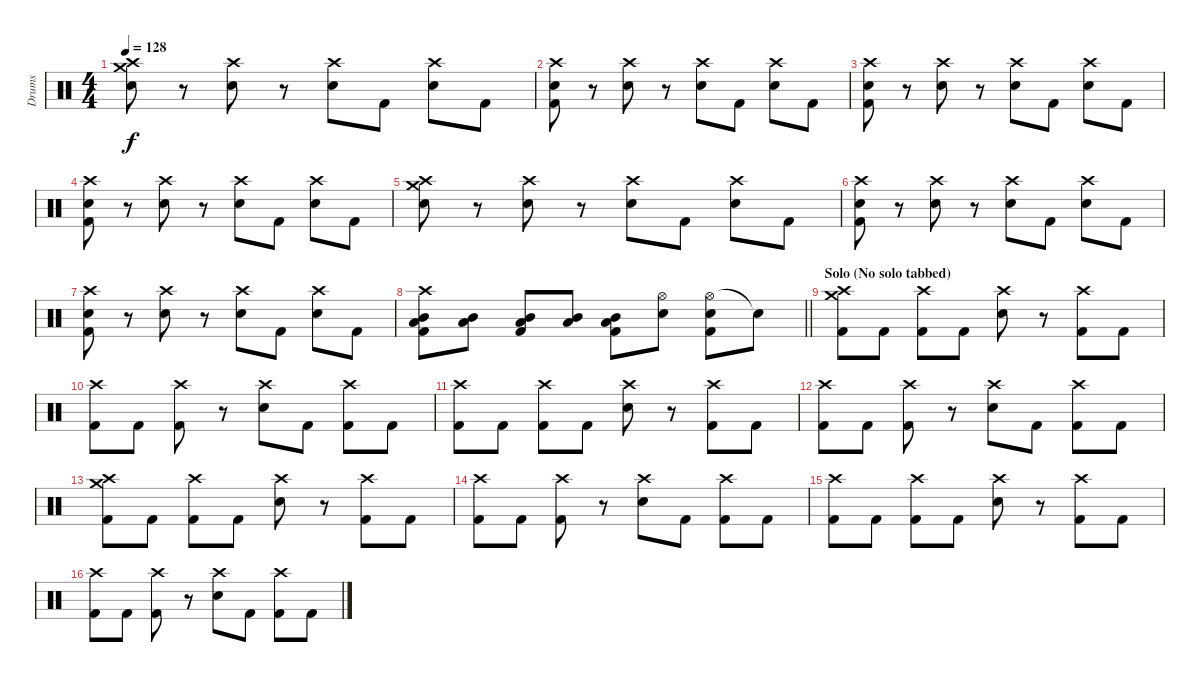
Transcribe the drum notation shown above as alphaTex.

\track ("Drums" "Drums") {instrument percussion}
\staff {score}
\articulation defaults
\ts (4 4)
\tempo 128
\clef neutral
\ks c
("Crash high (hit)" "Crash medium (hit)" "Snare (hit) 2").8{dy f volume 13} r.8 ("Crash high (hit)" "Snare (hit) 2").8 r.8 ("Crash high (hit)" "Snare (hit) 2").8 "Kick (hit) 2".8 ("Crash high (hit)" "Snare (hit) 2").8 "Kick (hit) 2".8 |
("Crash high (hit)" "Snare (hit) 2" "Kick (hit) 2").8 r.8 ("Crash high (hit)" "Snare (hit) 2").8 r.8 ("Crash high (hit)" "Snare (hit) 2").8 "Kick (hit) 2".8 ("Crash high (hit)" "Snare (hit) 2").8 "Kick (hit) 2".8 |
("Crash high (hit)" "Snare (hit) 2" "Kick (hit) 2").8 r.8 ("Crash high (hit)" "Snare (hit) 2").8 r.8 ("Crash high (hit)" "Snare (hit) 2").8 "Kick (hit) 2".8 ("Crash high (hit)" "Snare (hit) 2").8 "Kick (hit) 2".8 |
("Crash high (hit)" "Snare (hit) 2" "Kick (hit) 2").8 r.8 ("Crash high (hit)" "Snare (hit) 2").8 r.8 ("Crash high (hit)" "Snare (hit) 2").8 "Kick (hit) 2".8 ("Crash high (hit)" "Snare (hit) 2").8 "Kick (hit) 2".8 |
("Crash high (hit)" "Crash medium (hit)" "Snare (hit) 2").8 r.8 ("Crash high (hit)" "Snare (hit) 2").8 r.8 ("Crash high (hit)" "Snare (hit) 2").8 "Kick (hit) 2".8 ("Crash high (hit)" "Snare (hit) 2").8 "Kick (hit) 2".8 |
("Crash high (hit)" "Snare (hit) 2" "Kick (hit) 2").8 r.8 ("Crash high (hit)" "Snare (hit) 2").8 r.8 ("Crash high (hit)" "Snare (hit) 2").8 "Kick (hit) 2".8 ("Crash high (hit)" "Snare (hit) 2").8 "Kick (hit) 2".8 |
("Crash high (hit)" "Snare (hit) 2" "Kick (hit) 2").8 r.8 ("Crash high (hit)" "Snare (hit) 2").8 r.8 ("Crash high (hit)" "Snare (hit) 2").8 "Kick (hit) 2".8 ("Crash high (hit)" "Snare (hit) 2").8 "Kick (hit) 2".8 |
\barLineRight lightlight
("Crash high (hit)" "Mid Tom (hit)" "Low Tom (hit)" "Kick (hit) 2").8 ("Mid Tom (hit)" "Low Tom (hit)").8 ("Mid Tom (hit)" "Low Tom (hit)" "Kick (hit) 2").8 ("Mid Tom (hit)" "Low Tom (hit)").8 ("Mid Tom (hit)" "Low Tom (hit)" "Kick (hit) 2").8 ("Hi-Hat (open)" "Snare (hit) 2").8 ("Hi-Hat (open)" "Snare (hit) 2" "Kick (hit) 2").8 "Snare (hit)"{t}.8 |
\section ("" "Solo (No solo tabbed)")
("Crash high (hit)" "Crash medium (hit)" "Kick (hit) 2").8 "Kick (hit) 2".8 ("Crash high (hit)" "Kick (hit) 2").8 "Kick (hit) 2".8 ("Crash high (hit)" "Snare (hit) 2").8 r.8 ("Crash high (hit)" "Kick (hit) 2").8 "Kick (hit) 2".8 |
("Crash high (hit)" "Kick (hit) 2").8 "Kick (hit) 2".8 ("Crash high (hit)" "Kick (hit) 2").8 r.8 ("Crash high (hit)" "Snare (hit) 2").8 "Kick (hit) 2".8 ("Crash high (hit)" "Kick (hit) 2").8 "Kick (hit) 2".8 |
("Crash high (hit)" "Kick (hit) 2").8 "Kick (hit) 2".8 ("Crash high (hit)" "Kick (hit) 2").8 "Kick (hit) 2".8 ("Crash high (hit)" "Snare (hit) 2").8 r.8 ("Crash high (hit)" "Kick (hit) 2").8 "Kick (hit) 2".8 |
("Crash high (hit)" "Kick (hit) 2").8 "Kick (hit) 2".8 ("Crash high (hit)" "Kick (hit) 2").8 r.8 ("Crash high (hit)" "Snare (hit) 2").8 "Kick (hit) 2".8 ("Crash high (hit)" "Kick (hit) 2").8 "Kick (hit) 2".8 |
("Crash high (hit)" "Crash medium (hit)" "Kick (hit) 2").8 "Kick (hit) 2".8 ("Crash high (hit)" "Kick (hit) 2").8 "Kick (hit) 2".8 ("Crash high (hit)" "Snare (hit) 2").8 r.8 ("Crash high (hit)" "Kick (hit) 2").8 "Kick (hit) 2".8 |
("Crash high (hit)" "Kick (hit) 2").8 "Kick (hit) 2".8 ("Crash high (hit)" "Kick (hit) 2").8 r.8 ("Crash high (hit)" "Snare (hit) 2").8 "Kick (hit) 2".8 ("Crash high (hit)" "Kick (hit) 2").8 "Kick (hit) 2".8 |
("Crash high (hit)" "Kick (hit) 2").8 "Kick (hit) 2".8 ("Crash high (hit)" "Kick (hit) 2").8 "Kick (hit) 2".8 ("Crash high (hit)" "Snare (hit) 2").8 r.8 ("Crash high (hit)" "Kick (hit) 2").8 "Kick (hit) 2".8 |
("Crash high (hit)" "Kick (hit) 2").8 "Kick (hit) 2".8 ("Crash high (hit)" "Kick (hit) 2").8 r.8 ("Crash high (hit)" "Snare (hit) 2").8 "Kick (hit) 2".8 ("Crash high (hit)" "Kick (hit) 2").8 "Kick (hit) 2".8
